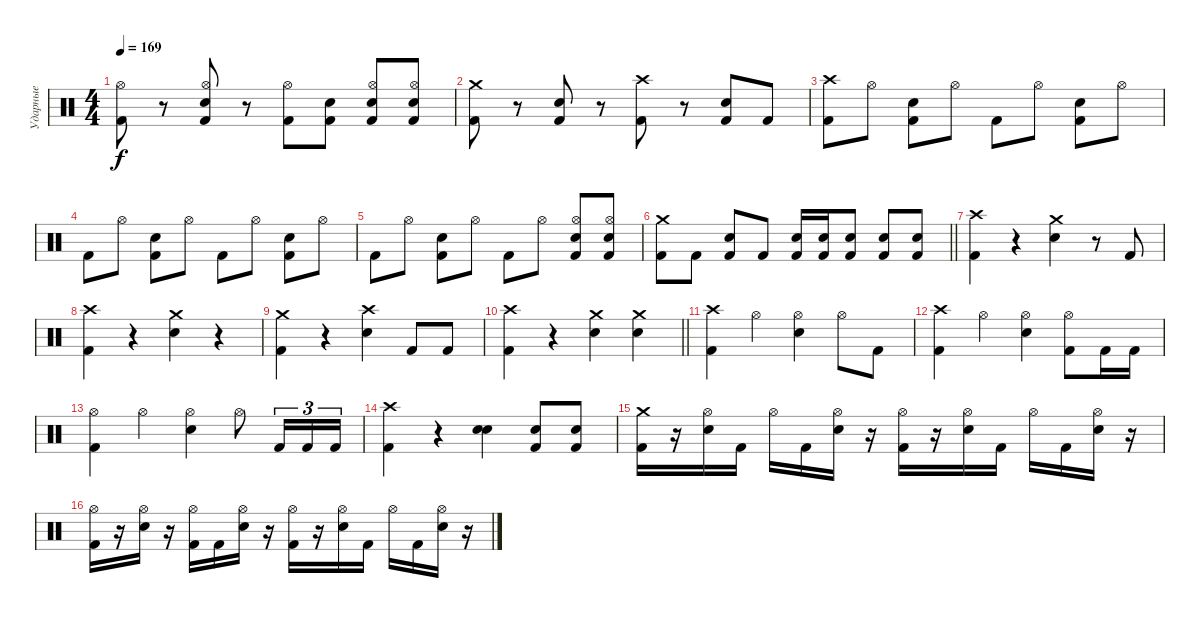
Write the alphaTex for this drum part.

\track ("Ударные" "Ударные") {instrument percussion}
\staff {score}
\articulation defaults
\ts (4 4)
\tempo 169
\clef neutral
\ks c
("Kick (hit) 2" "Hi-Hat (open)").8{dy f} r.8 ("Snare (hit) 2" "Kick (hit) 2" "Hi-Hat (open)").8 r.8 ("Kick (hit) 2" "Hi-Hat (open)").8 ("Snare (hit) 2" "Kick (hit) 2").8 ("Snare (hit) 2" "Kick (hit) 2" "Hi-Hat (open)").8 ("Snare (hit) 2" "Kick (hit) 2" "Hi-Hat (open)").8 |
("Kick (hit) 2" "Crash medium (hit)").8 r.8 ("Snare (hit) 2" "Kick (hit) 2").8 r.8 ("Kick (hit) 2" "Crash high (hit)").8 r.8 ("Snare (hit) 2" "Kick (hit) 2").8 "Kick (hit) 2".8 |
("Kick (hit) 2" "Crash high (hit)").8 "Hi-Hat (open)".8 ("Snare (hit) 2" "Kick (hit) 2").8 "Hi-Hat (open)".8 "Kick (hit) 2".8 "Hi-Hat (open)".8 ("Snare (hit) 2" "Kick (hit) 2").8 "Hi-Hat (open)".8 |
"Kick (hit) 2".8 "Hi-Hat (open)".8 ("Snare (hit) 2" "Kick (hit) 2").8 "Hi-Hat (open)".8 "Kick (hit) 2".8 "Hi-Hat (open)".8 ("Snare (hit) 2" "Kick (hit) 2").8 "Hi-Hat (open)".8 |
"Kick (hit) 2".8 "Hi-Hat (open)".8 ("Snare (hit) 2" "Kick (hit) 2").8 "Hi-Hat (open)".8 "Kick (hit) 2".8 "Hi-Hat (open)".8 ("Snare (hit) 2" "Kick (hit) 2" "Hi-Hat (open)").8 ("Snare (hit) 2" "Kick (hit) 2" "Hi-Hat (open)").8 |
\barLineRight lightlight
("Kick (hit) 2" "Crash medium (hit)").8 "Kick (hit) 2".8 ("Snare (hit) 2" "Kick (hit) 2").8 "Kick (hit) 2".8 ("Snare (hit) 2" "Kick (hit) 2").16 ("Snare (hit) 2" "Kick (hit) 2").16 ("Snare (hit) 2" "Kick (hit) 2").8 ("Snare (hit) 2" "Kick (hit) 2").8 ("Snare (hit) 2" "Kick (hit) 2").8 |
("Crash high (hit)" "Kick (hit) 2").4 r.4 ("Crash medium (hit)" "Snare (hit) 2").4 r.8 "Kick (hit) 2".8 |
("Crash high (hit)" "Kick (hit) 2").4 r.4 ("Crash medium (hit)" "Snare (hit) 2").4 r.4 |
("Crash medium (hit)" "Kick (hit) 2").4 r.4 ("Crash high (hit)" "Snare (hit) 2").4 "Kick (hit) 2".8 "Kick (hit) 2".8 |
\barLineRight lightlight
("Crash high (hit)" "Kick (hit) 2").4 r.4 ("Crash medium (hit)" "Snare (hit) 2").4 ("Crash medium (hit)" "Snare (hit) 2").4 |
("Crash high (hit)" "Kick (hit) 2").4 "Hi-Hat (open)".4 ("Hi-Hat (open)" "Snare (hit) 2").4 "Hi-Hat (open)".8 "Kick (hit) 2".8 |
("Crash high (hit)" "Kick (hit) 2").4 "Hi-Hat (open)".4 ("Hi-Hat (open)" "Snare (hit) 2").4 ("Hi-Hat (open)" "Kick (hit) 2").8 "Kick (hit) 2".16 "Kick (hit) 2".16 |
("Hi-Hat (open)" "Kick (hit) 2").4 "Hi-Hat (open)".4 ("Hi-Hat (open)" "Snare (hit) 2").4 "Hi-Hat (open)".8 "Kick (hit) 2".16{tu (3 2)} "Kick (hit) 2".16{tu (3 2)} "Kick (hit) 2".16{tu (3 2)} |
("Crash high (hit)" "Kick (hit) 2").4 r.4 ("Snare (hit) 2" "Snare (hit) 2").4 ("Snare (hit) 2" "Kick (hit) 2").8 ("Snare (hit) 2" "Kick (hit) 2").8 |
("Crash medium (hit)" "Kick (hit) 2").16 r.16 ("Hi-Hat (open)" "Snare (hit) 2").16 "Kick (hit) 2".16 "Hi-Hat (open)".16 "Kick (hit) 2".16 ("Hi-Hat (open)" "Snare (hit) 2").16 r.16 ("Hi-Hat (open)" "Kick (hit) 2").16 r.16 ("Hi-Hat (open)" "Snare (hit) 2").16 "Kick (hit) 2".16 "Hi-Hat (open)".16 "Kick (hit) 2".16 ("Hi-Hat (open)" "Snare (hit) 2").16 r.16 |
("Hi-Hat (open)" "Kick (hit) 2").16 r.16 ("Hi-Hat (open)" "Snare (hit) 2").16 r.16 ("Hi-Hat (open)" "Kick (hit) 2").16 "Kick (hit) 2".16 ("Hi-Hat (open)" "Snare (hit) 2").16 r.16 ("Hi-Hat (open)" "Kick (hit) 2").16 r.16 ("Hi-Hat (open)" "Snare (hit) 2").16 "Kick (hit) 2".16 "Hi-Hat (open)".16 "Kick (hit) 2".16 ("Hi-Hat (open)" "Snare (hit) 2").16 r.16
